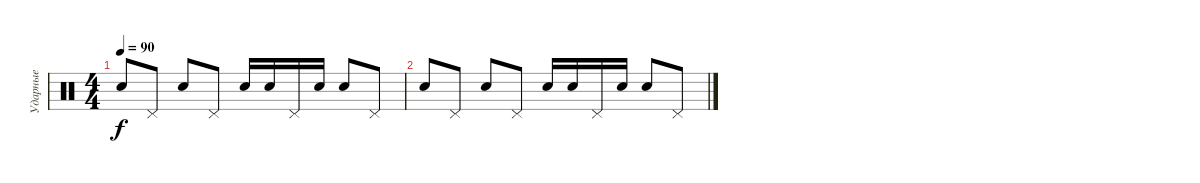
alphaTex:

\track ("Ударные" "Ударные") {instrument percussion}
\staff {score}
\articulation defaults
\ts (4 4)
\tempo 90
\clef neutral
\ks c "Snare (hit) 2".8{dy f} "Pedal Hi-Hat (hit)".8 "Snare (hit) 2".8 "Pedal Hi-Hat (hit)".8 "Snare (hit) 2".16 "Snare (hit) 2".16 "Pedal Hi-Hat (hit)".16 "Snare (hit) 2".16 "Snare (hit) 2".8 "Pedal Hi-Hat (hit)".8
|
"Snare (hit) 2".8 "Pedal Hi-Hat (hit)".8 "Snare (hit) 2".8 "Pedal Hi-Hat (hit)".8 "Snare (hit) 2".16 "Snare (hit) 2".16 "Pedal Hi-Hat (hit)".16 "Snare (hit) 2".16 "Snare (hit) 2".8 "Pedal Hi-Hat (hit)".8
